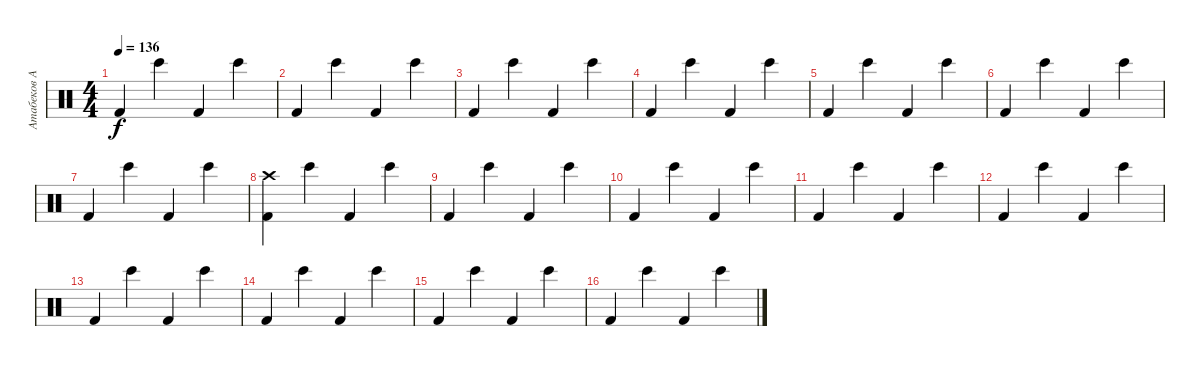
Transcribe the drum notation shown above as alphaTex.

\track ("Атабеков Андрей - Барабаны" "Атабеков А") {instrument percussion}
\staff {score}
\articulation defaults
\ts (4 4)
\tempo 136
\clef neutral
\ks c "Kick (hit) 2".4{dy f} "Bongo High (hit)".4 "Kick (hit) 2".4 "Bongo High (hit)".4
|
"Kick (hit) 2".4 "Bongo High (hit)".4 "Kick (hit) 2".4 "Bongo High (hit)".4 |
"Kick (hit) 2".4 "Bongo High (hit)".4 "Kick (hit) 2".4 "Bongo High (hit)".4 |
"Kick (hit) 2".4 "Bongo High (hit)".4 "Kick (hit) 2".4 "Bongo High (hit)".4 |
"Kick (hit) 2".4 "Bongo High (hit)".4 "Kick (hit) 2".4 "Bongo High (hit)".4 |
"Kick (hit) 2".4 "Bongo High (hit)".4 "Kick (hit) 2".4 "Bongo High (hit)".4 |
"Kick (hit) 2".4 "Bongo High (hit)".4 "Kick (hit) 2".4 "Bongo High (hit)".4 |
("Kick (hit) 2" "Crash high (hit)").4 "Bongo High (hit)".4 "Kick (hit) 2".4 "Bongo High (hit)".4 |
"Kick (hit) 2".4 "Bongo High (hit)".4 "Kick (hit) 2".4 "Bongo High (hit)".4 |
"Kick (hit) 2".4 "Bongo High (hit)".4 "Kick (hit) 2".4 "Bongo High (hit)".4 |
"Kick (hit) 2".4 "Bongo High (hit)".4 "Kick (hit) 2".4 "Bongo High (hit)".4 |
"Kick (hit) 2".4 "Bongo High (hit)".4 "Kick (hit) 2".4 "Bongo High (hit)".4 |
"Kick (hit) 2".4 "Bongo High (hit)".4 "Kick (hit) 2".4 "Bongo High (hit)".4 |
"Kick (hit) 2".4 "Bongo High (hit)".4 "Kick (hit) 2".4 "Bongo High (hit)".4 |
"Kick (hit) 2".4 "Bongo High (hit)".4 "Kick (hit) 2".4 "Bongo High (hit)".4 |
"Kick (hit) 2".4 "Bongo High (hit)".4 "Kick (hit) 2".4 "Bongo High (hit)".4
